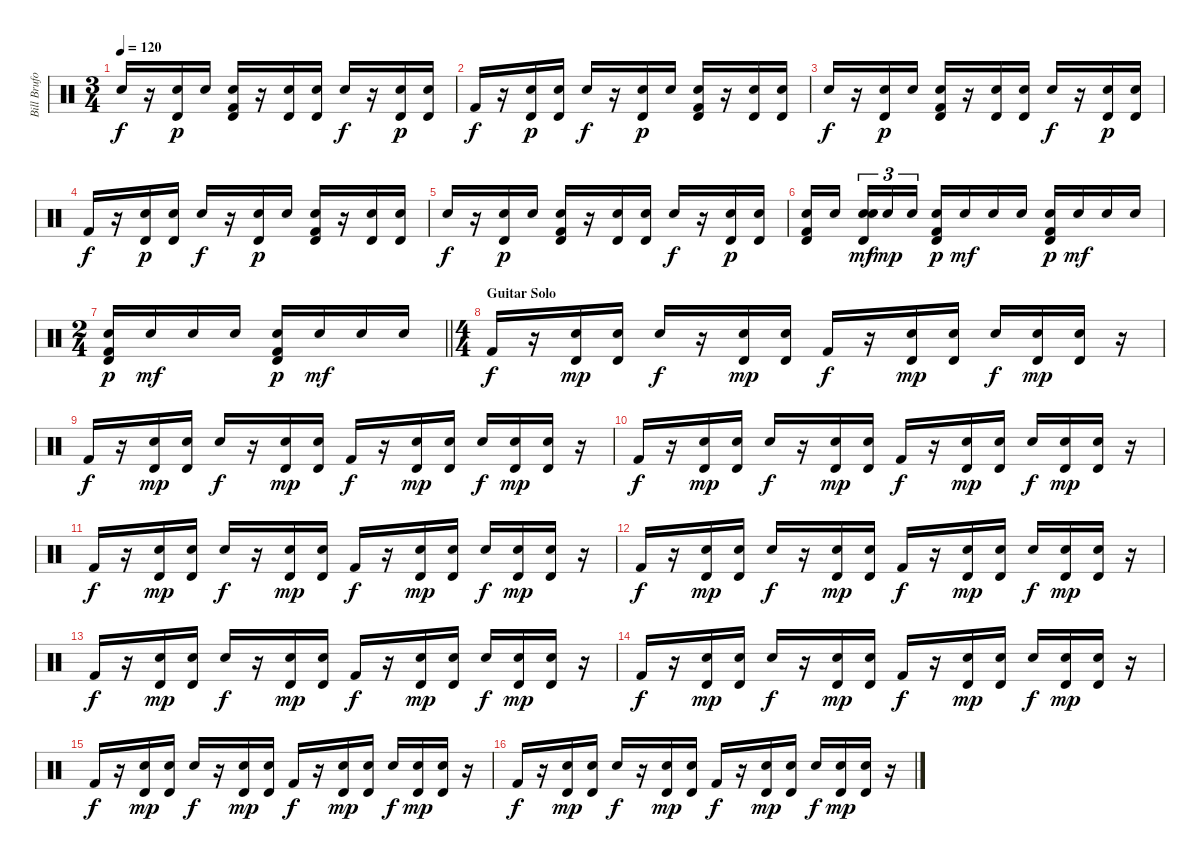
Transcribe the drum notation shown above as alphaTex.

\track ("Bill Bruford (Drums)" "Bill Brufo") {instrument percussion}
\staff {score}
\articulation defaults
\ts (3 4)
\tempo 120
\clef neutral
\ks c "Electric Snare (hit)".16{dy f}
r.16 ("Electric Snare (hit)" "Timbale high (hit)").16{dy p} "Electric Snare (hit)".16 ("Electric Snare (hit)" "Timbale high (hit)" "Kick (hit) 2").16 r.16 ("Electric Snare (hit)" "Timbale high (hit)").16 ("Electric Snare (hit)" "Timbale high (hit)").16 "Electric Snare (hit)".16{dy f} r.16 ("Electric Snare (hit)" "Timbale high (hit)").16{dy p} ("Electric Snare (hit)" "Timbale high (hit)").16 |
"Kick (hit) 2".16{dy f} r.16 ("Electric Snare (hit)" "Timbale high (hit)").16{dy p} ("Electric Snare (hit)" "Timbale high (hit)").16 "Electric Snare (hit)".16{dy f} r.16 ("Electric Snare (hit)" "Timbale high (hit)").16{dy p} "Electric Snare (hit)".16 ("Electric Snare (hit)" "Timbale high (hit)" "Kick (hit) 2").16 r.16 ("Electric Snare (hit)" "Timbale high (hit)").16 ("Electric Snare (hit)" "Timbale high (hit)").16 |
"Electric Snare (hit)".16{dy f} r.16 ("Electric Snare (hit)" "Timbale high (hit)").16{dy p} "Electric Snare (hit)".16 ("Electric Snare (hit)" "Timbale high (hit)" "Kick (hit) 2").16 r.16 ("Electric Snare (hit)" "Timbale high (hit)").16 ("Electric Snare (hit)" "Timbale high (hit)").16 "Electric Snare (hit)".16{dy f} r.16 ("Electric Snare (hit)" "Timbale high (hit)").16{dy p} ("Electric Snare (hit)" "Timbale high (hit)").16 |
"Kick (hit) 2".16{dy f} r.16 ("Electric Snare (hit)" "Timbale high (hit)").16{dy p} ("Electric Snare (hit)" "Timbale high (hit)").16 "Electric Snare (hit)".16{dy f} r.16 ("Electric Snare (hit)" "Timbale high (hit)").16{dy p} "Electric Snare (hit)".16 ("Electric Snare (hit)" "Timbale high (hit)" "Kick (hit) 2").16 r.16 ("Electric Snare (hit)" "Timbale high (hit)").16 ("Electric Snare (hit)" "Timbale high (hit)").16 |
"Electric Snare (hit)".16{dy f} r.16 ("Electric Snare (hit)" "Timbale high (hit)").16{dy p} "Electric Snare (hit)".16 ("Electric Snare (hit)" "Timbale high (hit)" "Kick (hit) 2").16 r.16 ("Electric Snare (hit)" "Timbale high (hit)").16 ("Electric Snare (hit)" "Timbale high (hit)").16 "Electric Snare (hit)".16{dy f} r.16 ("Electric Snare (hit)" "Timbale high (hit)").16{dy p} ("Electric Snare (hit)" "Timbale high (hit)").16 |
("Electric Snare (hit)" "Timbale high (hit)" "Kick (hit) 2").16 "Electric Snare (hit)".16{beam splitsecondary} ("Electric Snare (hit)" "Timbale high (hit)" "Electric Snare (hit)").16{tu (3 2) dy mf} "Electric Snare (hit)".16{tu (3 2) dy mp} "Electric Snare (hit)".16{tu (3 2)} ("Timbale high (hit)" "Electric Snare (hit)" "Kick (hit) 2").16{dy p} "Electric Snare (hit)".16{dy mf} "Electric Snare (hit)".16 "Electric Snare (hit)".16 ("Timbale high (hit)" "Electric Snare (hit)" "Kick (hit) 2").16{dy p} "Electric Snare (hit)".16{dy mf} "Electric Snare (hit)".16 "Electric Snare (hit)".16 |
\ts (2 4)
\barLineRight lightlight
("Timbale high (hit)" "Electric Snare (hit)" "Kick (hit) 2").16{dy p} "Electric Snare (hit)".16{dy mf} "Electric Snare (hit)".16 "Electric Snare (hit)".16 ("Timbale high (hit)" "Electric Snare (hit)" "Kick (hit) 2").16{dy p} "Electric Snare (hit)".16{dy mf} "Electric Snare (hit)".16 "Electric Snare (hit)".16 |
\ts (4 4)
\section ("" "Guitar Solo")
"Kick (hit) 2".16{dy f} r.16 ("Electric Snare (hit)" "Timbale high (hit)").16{dy mp} ("Electric Snare (hit)" "Timbale high (hit)").16 "Electric Snare (hit)".16{dy f} r.16 ("Electric Snare (hit)" "Timbale high (hit)").16{dy mp} ("Electric Snare (hit)" "Timbale high (hit)").16 "Kick (hit) 2".16{dy f} r.16 ("Electric Snare (hit)" "Timbale high (hit)").16{dy mp} ("Electric Snare (hit)" "Timbale high (hit)").16 "Electric Snare (hit)".16{dy f} ("Electric Snare (hit)" "Timbale high (hit)").16{dy mp} ("Electric Snare (hit)" "Timbale high (hit)").16 r.16 |
"Kick (hit) 2".16{dy f} r.16 ("Electric Snare (hit)" "Timbale high (hit)").16{dy mp} ("Electric Snare (hit)" "Timbale high (hit)").16 "Electric Snare (hit)".16{dy f} r.16 ("Electric Snare (hit)" "Timbale high (hit)").16{dy mp} ("Electric Snare (hit)" "Timbale high (hit)").16 "Kick (hit) 2".16{dy f} r.16 ("Electric Snare (hit)" "Timbale high (hit)").16{dy mp} ("Electric Snare (hit)" "Timbale high (hit)").16 "Electric Snare (hit)".16{dy f} ("Electric Snare (hit)" "Timbale high (hit)").16{dy mp} ("Electric Snare (hit)" "Timbale high (hit)").16 r.16 |
"Kick (hit) 2".16{dy f} r.16 ("Electric Snare (hit)" "Timbale high (hit)").16{dy mp} ("Electric Snare (hit)" "Timbale high (hit)").16 "Electric Snare (hit)".16{dy f} r.16 ("Electric Snare (hit)" "Timbale high (hit)").16{dy mp} ("Electric Snare (hit)" "Timbale high (hit)").16 "Kick (hit) 2".16{dy f} r.16 ("Electric Snare (hit)" "Timbale high (hit)").16{dy mp} ("Electric Snare (hit)" "Timbale high (hit)").16 "Electric Snare (hit)".16{dy f} ("Electric Snare (hit)" "Timbale high (hit)").16{dy mp} ("Electric Snare (hit)" "Timbale high (hit)").16 r.16 |
"Kick (hit) 2".16{dy f} r.16 ("Electric Snare (hit)" "Timbale high (hit)").16{dy mp} ("Electric Snare (hit)" "Timbale high (hit)").16 "Electric Snare (hit)".16{dy f} r.16 ("Electric Snare (hit)" "Timbale high (hit)").16{dy mp} ("Electric Snare (hit)" "Timbale high (hit)").16 "Kick (hit) 2".16{dy f} r.16 ("Electric Snare (hit)" "Timbale high (hit)").16{dy mp} ("Electric Snare (hit)" "Timbale high (hit)").16 "Electric Snare (hit)".16{dy f} ("Electric Snare (hit)" "Timbale high (hit)").16{dy mp} ("Electric Snare (hit)" "Timbale high (hit)").16 r.16 |
"Kick (hit) 2".16{dy f} r.16 ("Electric Snare (hit)" "Timbale high (hit)").16{dy mp} ("Electric Snare (hit)" "Timbale high (hit)").16 "Electric Snare (hit)".16{dy f} r.16 ("Electric Snare (hit)" "Timbale high (hit)").16{dy mp} ("Electric Snare (hit)" "Timbale high (hit)").16 "Kick (hit) 2".16{dy f} r.16 ("Electric Snare (hit)" "Timbale high (hit)").16{dy mp} ("Electric Snare (hit)" "Timbale high (hit)").16 "Electric Snare (hit)".16{dy f} ("Electric Snare (hit)" "Timbale high (hit)").16{dy mp} ("Electric Snare (hit)" "Timbale high (hit)").16 r.16 |
"Kick (hit) 2".16{dy f} r.16 ("Electric Snare (hit)" "Timbale high (hit)").16{dy mp} ("Electric Snare (hit)" "Timbale high (hit)").16 "Electric Snare (hit)".16{dy f} r.16 ("Electric Snare (hit)" "Timbale high (hit)").16{dy mp} ("Electric Snare (hit)" "Timbale high (hit)").16 "Kick (hit) 2".16{dy f} r.16 ("Electric Snare (hit)" "Timbale high (hit)").16{dy mp} ("Electric Snare (hit)" "Timbale high (hit)").16 "Electric Snare (hit)".16{dy f} ("Electric Snare (hit)" "Timbale high (hit)").16{dy mp} ("Electric Snare (hit)" "Timbale high (hit)").16 r.16 |
"Kick (hit) 2".16{dy f} r.16 ("Electric Snare (hit)" "Timbale high (hit)").16{dy mp} ("Electric Snare (hit)" "Timbale high (hit)").16 "Electric Snare (hit)".16{dy f} r.16 ("Electric Snare (hit)" "Timbale high (hit)").16{dy mp} ("Electric Snare (hit)" "Timbale high (hit)").16 "Kick (hit) 2".16{dy f} r.16 ("Electric Snare (hit)" "Timbale high (hit)").16{dy mp} ("Electric Snare (hit)" "Timbale high (hit)").16 "Electric Snare (hit)".16{dy f} ("Electric Snare (hit)" "Timbale high (hit)").16{dy mp} ("Electric Snare (hit)" "Timbale high (hit)").16 r.16 |
"Kick (hit) 2".16{dy f} r.16 ("Electric Snare (hit)" "Timbale high (hit)").16{dy mp} ("Electric Snare (hit)" "Timbale high (hit)").16 "Electric Snare (hit)".16{dy f} r.16 ("Electric Snare (hit)" "Timbale high (hit)").16{dy mp} ("Electric Snare (hit)" "Timbale high (hit)").16 "Kick (hit) 2".16{dy f} r.16 ("Electric Snare (hit)" "Timbale high (hit)").16{dy mp} ("Electric Snare (hit)" "Timbale high (hit)").16 "Electric Snare (hit)".16{dy f} ("Electric Snare (hit)" "Timbale high (hit)").16{dy mp} ("Electric Snare (hit)" "Timbale high (hit)").16 r.16 |
"Kick (hit) 2".16{dy f} r.16 ("Electric Snare (hit)" "Timbale high (hit)").16{dy mp} ("Electric Snare (hit)" "Timbale high (hit)").16 "Electric Snare (hit)".16{dy f} r.16 ("Electric Snare (hit)" "Timbale high (hit)").16{dy mp} ("Electric Snare (hit)" "Timbale high (hit)").16 "Kick (hit) 2".16{dy f} r.16 ("Electric Snare (hit)" "Timbale high (hit)").16{dy mp} ("Electric Snare (hit)" "Timbale high (hit)").16 "Electric Snare (hit)".16{dy f} ("Electric Snare (hit)" "Timbale high (hit)").16{dy mp} ("Electric Snare (hit)" "Timbale high (hit)").16 r.16
